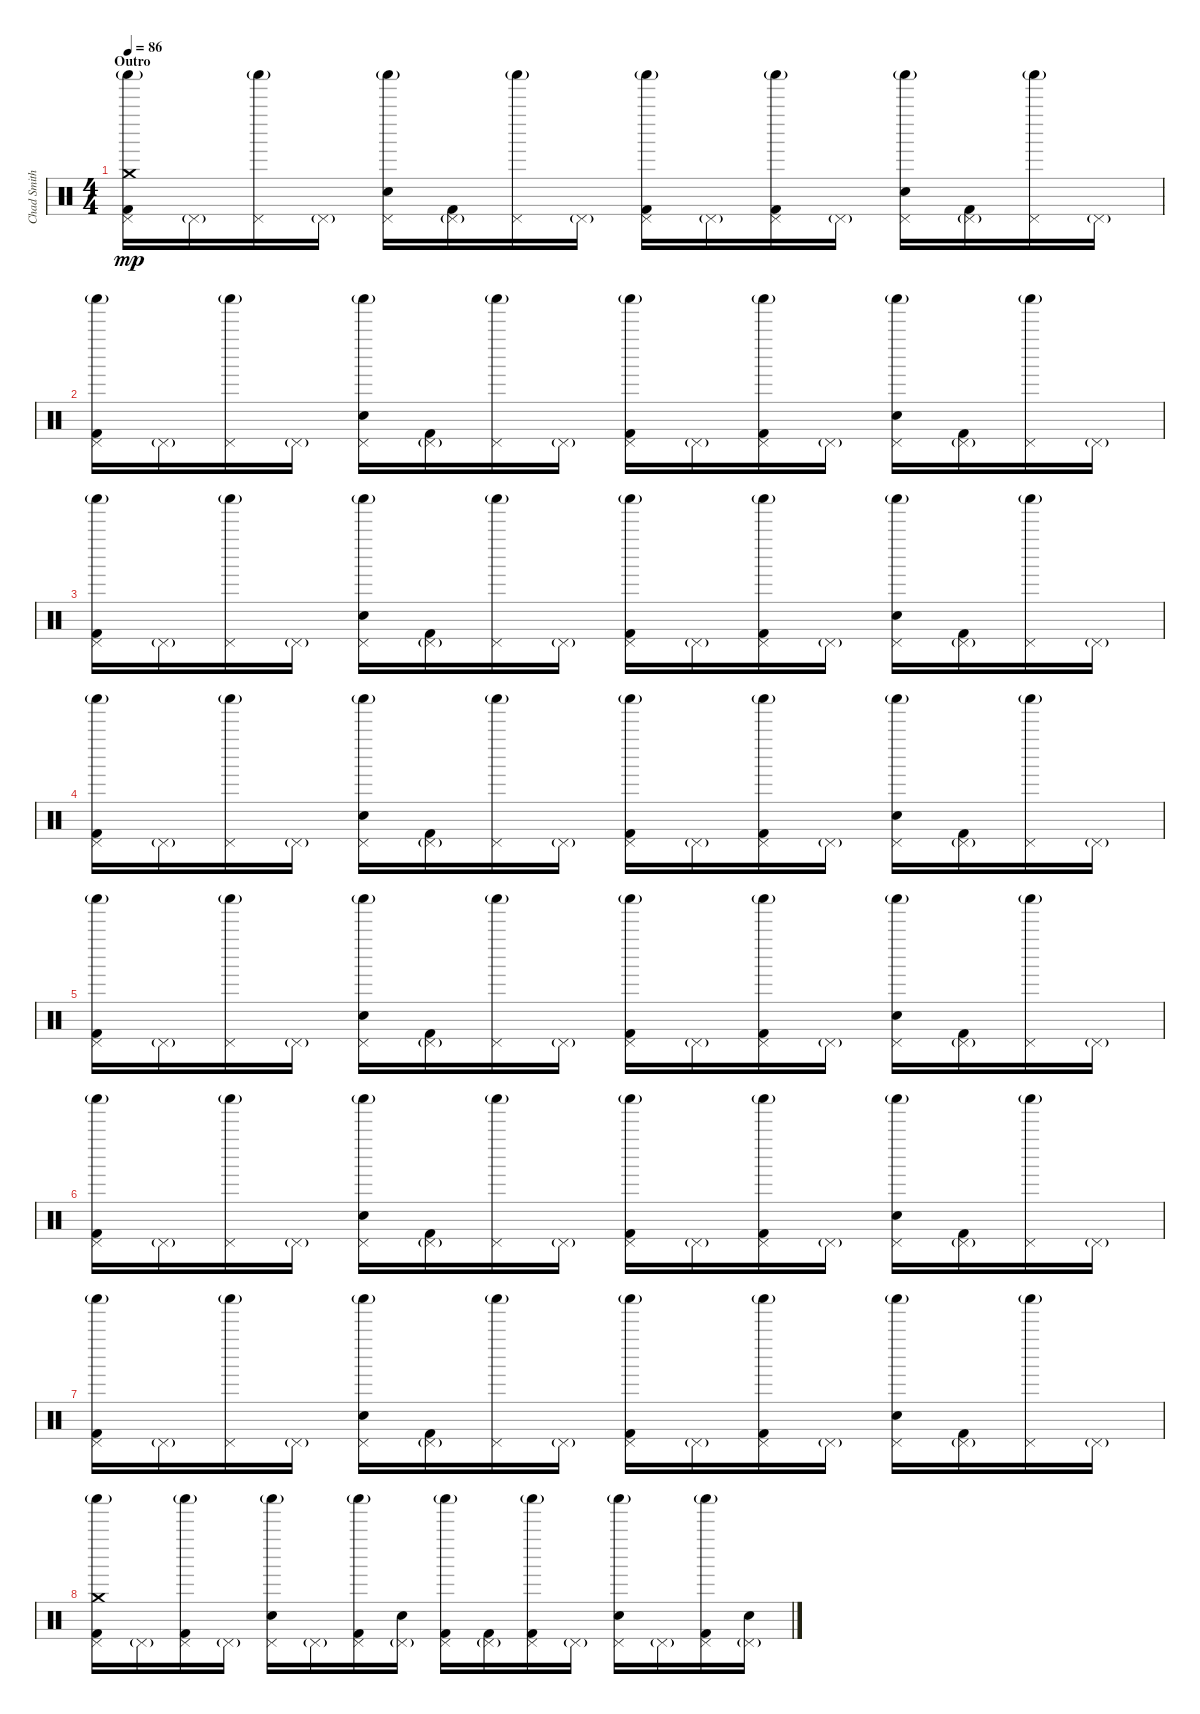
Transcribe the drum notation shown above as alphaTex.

\track ("Chad Smith (Percussions)" "Chad Smith") {instrument percussion}
\staff {score}
\articulation defaults
\ts (4 4)
\section ("" "Outro")
\tempo 86
\clef neutral
\ks c
("Crash medium (hit)" "Pedal Hi-Hat (hit)" "Kick (hit) 2" "Shaker (hit)"{g}).16{dy mp} "Pedal Hi-Hat (hit)"{g}.16 ("Pedal Hi-Hat (hit)" "Shaker (hit)"{g}).16 "Pedal Hi-Hat (hit)"{g}.16 ("Pedal Hi-Hat (hit)" "Electric Snare (hit)" "Shaker (hit)"{g}).16 ("Kick (hit) 2" "Pedal Hi-Hat (hit)"{g}).16 ("Pedal Hi-Hat (hit)" "Shaker (hit)"{g}).16 "Pedal Hi-Hat (hit)"{g}.16 ("Pedal Hi-Hat (hit)" "Kick (hit) 2" "Shaker (hit)"{g}).16 "Pedal Hi-Hat (hit)"{g}.16 ("Pedal Hi-Hat (hit)" "Kick (hit) 2" "Shaker (hit)"{g}).16 "Pedal Hi-Hat (hit)"{g}.16 ("Pedal Hi-Hat (hit)" "Electric Snare (hit)" "Shaker (hit)"{g}).16 ("Kick (hit) 2" "Pedal Hi-Hat (hit)"{g}).16 ("Pedal Hi-Hat (hit)" "Shaker (hit)"{g}).16 "Pedal Hi-Hat (hit)"{g}.16 |
("Pedal Hi-Hat (hit)" "Kick (hit) 2" "Shaker (hit)"{g}).16 "Pedal Hi-Hat (hit)"{g}.16 ("Pedal Hi-Hat (hit)" "Shaker (hit)"{g}).16 "Pedal Hi-Hat (hit)"{g}.16 ("Pedal Hi-Hat (hit)" "Electric Snare (hit)" "Shaker (hit)"{g}).16 ("Kick (hit) 2" "Pedal Hi-Hat (hit)"{g}).16 ("Pedal Hi-Hat (hit)" "Shaker (hit)"{g}).16 "Pedal Hi-Hat (hit)"{g}.16 ("Pedal Hi-Hat (hit)" "Kick (hit) 2" "Shaker (hit)"{g}).16 "Pedal Hi-Hat (hit)"{g}.16 ("Pedal Hi-Hat (hit)" "Kick (hit) 2" "Shaker (hit)"{g}).16 "Pedal Hi-Hat (hit)"{g}.16 ("Pedal Hi-Hat (hit)" "Electric Snare (hit)" "Shaker (hit)"{g}).16 ("Kick (hit) 2" "Pedal Hi-Hat (hit)"{g}).16 ("Pedal Hi-Hat (hit)" "Shaker (hit)"{g}).16 "Pedal Hi-Hat (hit)"{g}.16 |
("Pedal Hi-Hat (hit)" "Kick (hit) 2" "Shaker (hit)"{g}).16 "Pedal Hi-Hat (hit)"{g}.16 ("Pedal Hi-Hat (hit)" "Shaker (hit)"{g}).16 "Pedal Hi-Hat (hit)"{g}.16 ("Pedal Hi-Hat (hit)" "Electric Snare (hit)" "Shaker (hit)"{g}).16 ("Kick (hit) 2" "Pedal Hi-Hat (hit)"{g}).16 ("Pedal Hi-Hat (hit)" "Shaker (hit)"{g}).16 "Pedal Hi-Hat (hit)"{g}.16 ("Pedal Hi-Hat (hit)" "Kick (hit) 2" "Shaker (hit)"{g}).16 "Pedal Hi-Hat (hit)"{g}.16 ("Pedal Hi-Hat (hit)" "Kick (hit) 2" "Shaker (hit)"{g}).16 "Pedal Hi-Hat (hit)"{g}.16 ("Pedal Hi-Hat (hit)" "Electric Snare (hit)" "Shaker (hit)"{g}).16 ("Kick (hit) 2" "Pedal Hi-Hat (hit)"{g}).16 ("Pedal Hi-Hat (hit)" "Shaker (hit)"{g}).16 "Pedal Hi-Hat (hit)"{g}.16 |
("Pedal Hi-Hat (hit)" "Kick (hit) 2" "Shaker (hit)"{g}).16 "Pedal Hi-Hat (hit)"{g}.16 ("Pedal Hi-Hat (hit)" "Shaker (hit)"{g}).16 "Pedal Hi-Hat (hit)"{g}.16 ("Pedal Hi-Hat (hit)" "Electric Snare (hit)" "Shaker (hit)"{g}).16 ("Kick (hit) 2" "Pedal Hi-Hat (hit)"{g}).16 ("Pedal Hi-Hat (hit)" "Shaker (hit)"{g}).16 "Pedal Hi-Hat (hit)"{g}.16 ("Pedal Hi-Hat (hit)" "Kick (hit) 2" "Shaker (hit)"{g}).16 "Pedal Hi-Hat (hit)"{g}.16 ("Pedal Hi-Hat (hit)" "Kick (hit) 2" "Shaker (hit)"{g}).16 "Pedal Hi-Hat (hit)"{g}.16 ("Pedal Hi-Hat (hit)" "Electric Snare (hit)" "Shaker (hit)"{g}).16 ("Kick (hit) 2" "Pedal Hi-Hat (hit)"{g}).16 ("Pedal Hi-Hat (hit)" "Shaker (hit)"{g}).16 "Pedal Hi-Hat (hit)"{g}.16 |
("Pedal Hi-Hat (hit)" "Kick (hit) 2" "Shaker (hit)"{g}).16 "Pedal Hi-Hat (hit)"{g}.16 ("Pedal Hi-Hat (hit)" "Shaker (hit)"{g}).16 "Pedal Hi-Hat (hit)"{g}.16 ("Pedal Hi-Hat (hit)" "Electric Snare (hit)" "Shaker (hit)"{g}).16 ("Kick (hit) 2" "Pedal Hi-Hat (hit)"{g}).16 ("Pedal Hi-Hat (hit)" "Shaker (hit)"{g}).16 "Pedal Hi-Hat (hit)"{g}.16 ("Pedal Hi-Hat (hit)" "Kick (hit) 2" "Shaker (hit)"{g}).16 "Pedal Hi-Hat (hit)"{g}.16 ("Pedal Hi-Hat (hit)" "Kick (hit) 2" "Shaker (hit)"{g}).16 "Pedal Hi-Hat (hit)"{g}.16 ("Pedal Hi-Hat (hit)" "Electric Snare (hit)" "Shaker (hit)"{g}).16 ("Kick (hit) 2" "Pedal Hi-Hat (hit)"{g}).16 ("Pedal Hi-Hat (hit)" "Shaker (hit)"{g}).16 "Pedal Hi-Hat (hit)"{g}.16 |
("Pedal Hi-Hat (hit)" "Kick (hit) 2" "Shaker (hit)"{g}).16 "Pedal Hi-Hat (hit)"{g}.16 ("Pedal Hi-Hat (hit)" "Shaker (hit)"{g}).16 "Pedal Hi-Hat (hit)"{g}.16 ("Pedal Hi-Hat (hit)" "Electric Snare (hit)" "Shaker (hit)"{g}).16 ("Kick (hit) 2" "Pedal Hi-Hat (hit)"{g}).16 ("Pedal Hi-Hat (hit)" "Shaker (hit)"{g}).16 "Pedal Hi-Hat (hit)"{g}.16 ("Pedal Hi-Hat (hit)" "Kick (hit) 2" "Shaker (hit)"{g}).16 "Pedal Hi-Hat (hit)"{g}.16 ("Pedal Hi-Hat (hit)" "Kick (hit) 2" "Shaker (hit)"{g}).16 "Pedal Hi-Hat (hit)"{g}.16 ("Pedal Hi-Hat (hit)" "Electric Snare (hit)" "Shaker (hit)"{g}).16 ("Kick (hit) 2" "Pedal Hi-Hat (hit)"{g}).16 ("Pedal Hi-Hat (hit)" "Shaker (hit)"{g}).16 "Pedal Hi-Hat (hit)"{g}.16 |
("Pedal Hi-Hat (hit)" "Kick (hit) 2" "Shaker (hit)"{g}).16 "Pedal Hi-Hat (hit)"{g}.16 ("Pedal Hi-Hat (hit)" "Shaker (hit)"{g}).16 "Pedal Hi-Hat (hit)"{g}.16 ("Pedal Hi-Hat (hit)" "Electric Snare (hit)" "Shaker (hit)"{g}).16 ("Kick (hit) 2" "Pedal Hi-Hat (hit)"{g}).16 ("Pedal Hi-Hat (hit)" "Shaker (hit)"{g}).16 "Pedal Hi-Hat (hit)"{g}.16 ("Pedal Hi-Hat (hit)" "Kick (hit) 2" "Shaker (hit)"{g}).16 "Pedal Hi-Hat (hit)"{g}.16 ("Pedal Hi-Hat (hit)" "Kick (hit) 2" "Shaker (hit)"{g}).16 "Pedal Hi-Hat (hit)"{g}.16 ("Pedal Hi-Hat (hit)" "Electric Snare (hit)" "Shaker (hit)"{g}).16 ("Kick (hit) 2" "Pedal Hi-Hat (hit)"{g}).16 ("Pedal Hi-Hat (hit)" "Shaker (hit)"{g}).16 "Pedal Hi-Hat (hit)"{g}.16 |
("Crash medium (hit)" "Pedal Hi-Hat (hit)" "Kick (hit) 2" "Shaker (hit)"{g}).16 "Pedal Hi-Hat (hit)"{g}.16 ("Pedal Hi-Hat (hit)" "Kick (hit) 2" "Shaker (hit)"{g}).16 "Pedal Hi-Hat (hit)"{g}.16 ("Pedal Hi-Hat (hit)" "Electric Snare (hit)" "Shaker (hit)"{g}).16 "Pedal Hi-Hat (hit)"{g}.16 ("Pedal Hi-Hat (hit)" "Kick (hit) 2" "Shaker (hit)"{g}).16 ("Electric Snare (hit)" "Pedal Hi-Hat (hit)"{g}).16 ("Pedal Hi-Hat (hit)" "Kick (hit) 2" "Shaker (hit)"{g}).16 ("Kick (hit) 2" "Pedal Hi-Hat (hit)"{g}).16 ("Pedal Hi-Hat (hit)" "Kick (hit) 2" "Shaker (hit)"{g}).16 "Pedal Hi-Hat (hit)"{g}.16 ("Pedal Hi-Hat (hit)" "Electric Snare (hit)" "Shaker (hit)"{g}).16 "Pedal Hi-Hat (hit)"{g}.16 ("Pedal Hi-Hat (hit)" "Kick (hit) 2" "Shaker (hit)"{g}).16 ("Electric Snare (hit)" "Pedal Hi-Hat (hit)"{g}).16
